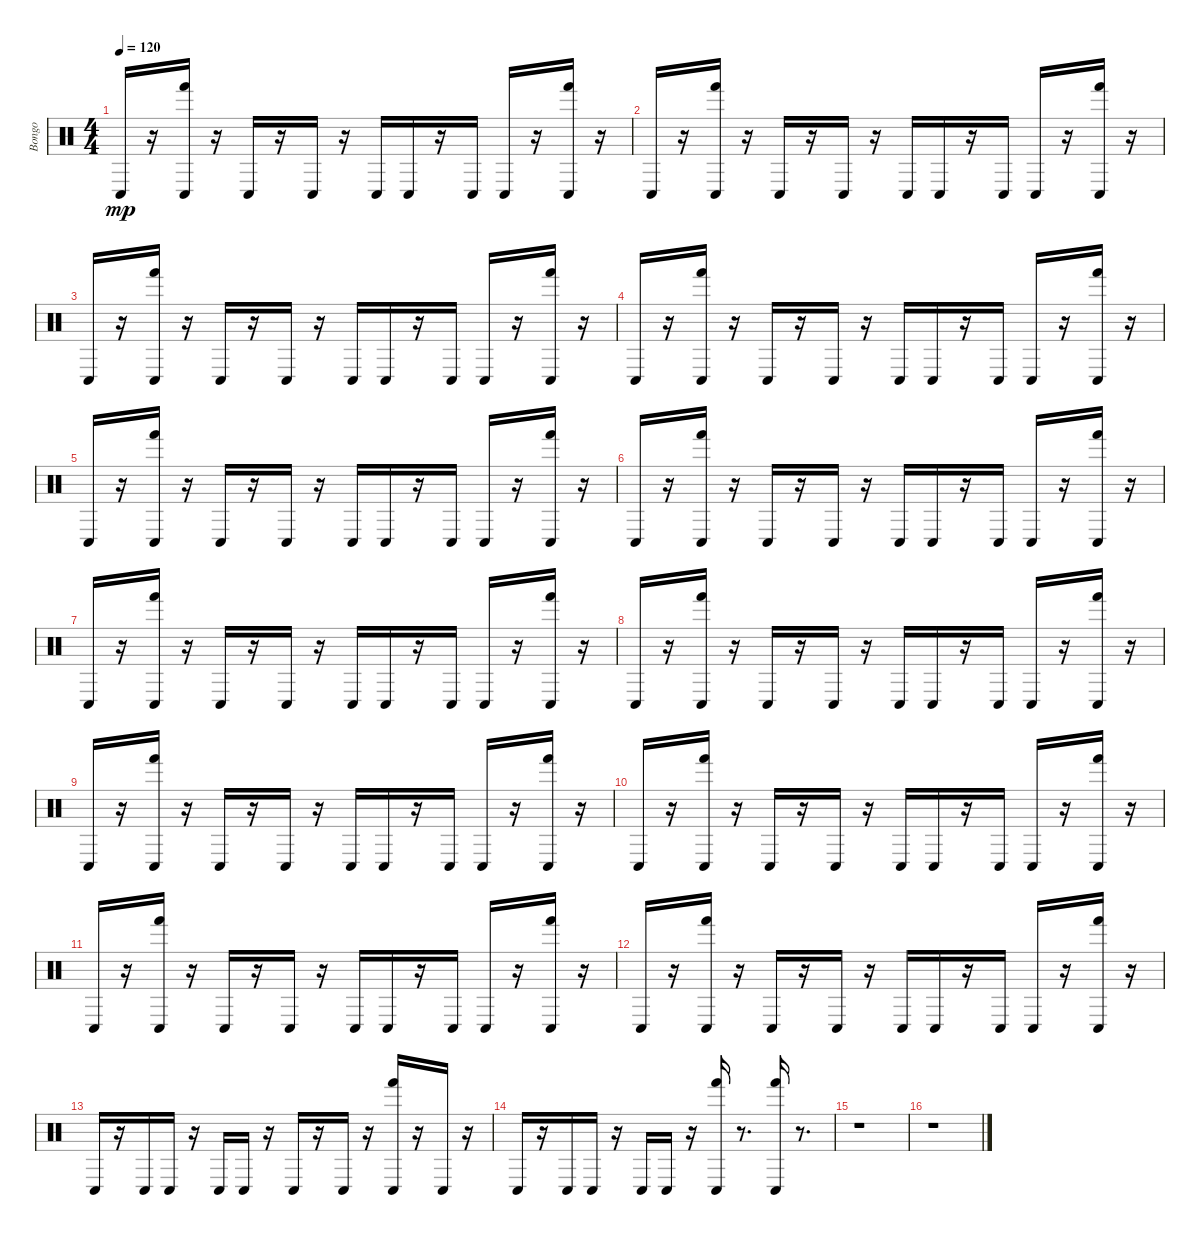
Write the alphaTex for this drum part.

\track ("Bongo" "Bongo") {instrument percussion}
\staff {score}
\articulation defaults
\ts (4 4)
\tempo 120
\clef neutral
\ks c "Conga low (hit)".16{dy mp}
r.16 ("Conga low (hit)" "Hand (hit)").16 r.16 "Conga low (hit)".16 r.16 "Conga low (hit)".16 r.16 "Conga low (hit)".16 "Conga low (hit)".16 r.16 "Conga low (hit)".16 "Conga low (hit)".16 r.16 ("Conga low (hit)" "Hand (hit)").16 r.16 |
"Conga low (hit)".16 r.16 ("Conga low (hit)" "Hand (hit)").16 r.16 "Conga low (hit)".16 r.16 "Conga low (hit)".16 r.16 "Conga low (hit)".16 "Conga low (hit)".16 r.16 "Conga low (hit)".16 "Conga low (hit)".16 r.16 ("Conga low (hit)" "Hand (hit)").16 r.16 |
"Conga low (hit)".16 r.16 ("Conga low (hit)" "Hand (hit)").16 r.16 "Conga low (hit)".16 r.16 "Conga low (hit)".16 r.16 "Conga low (hit)".16 "Conga low (hit)".16 r.16 "Conga low (hit)".16 "Conga low (hit)".16 r.16 ("Conga low (hit)" "Hand (hit)").16 r.16 |
"Conga low (hit)".16 r.16 ("Conga low (hit)" "Hand (hit)").16 r.16 "Conga low (hit)".16 r.16 "Conga low (hit)".16 r.16 "Conga low (hit)".16 "Conga low (hit)".16 r.16 "Conga low (hit)".16 "Conga low (hit)".16 r.16 ("Conga low (hit)" "Hand (hit)").16 r.16 |
"Conga low (hit)".16 r.16 ("Conga low (hit)" "Hand (hit)").16 r.16 "Conga low (hit)".16 r.16 "Conga low (hit)".16 r.16 "Conga low (hit)".16 "Conga low (hit)".16 r.16 "Conga low (hit)".16 "Conga low (hit)".16 r.16 ("Conga low (hit)" "Hand (hit)").16 r.16 |
"Conga low (hit)".16 r.16 ("Conga low (hit)" "Hand (hit)").16 r.16 "Conga low (hit)".16 r.16 "Conga low (hit)".16 r.16 "Conga low (hit)".16 "Conga low (hit)".16 r.16 "Conga low (hit)".16 "Conga low (hit)".16 r.16 ("Conga low (hit)" "Hand (hit)").16 r.16 |
"Conga low (hit)".16 r.16 ("Conga low (hit)" "Hand (hit)").16 r.16 "Conga low (hit)".16 r.16 "Conga low (hit)".16 r.16 "Conga low (hit)".16 "Conga low (hit)".16 r.16 "Conga low (hit)".16 "Conga low (hit)".16 r.16 ("Conga low (hit)" "Hand (hit)").16 r.16 |
"Conga low (hit)".16 r.16 ("Conga low (hit)" "Hand (hit)").16 r.16 "Conga low (hit)".16 r.16 "Conga low (hit)".16 r.16 "Conga low (hit)".16 "Conga low (hit)".16 r.16 "Conga low (hit)".16 "Conga low (hit)".16 r.16 ("Conga low (hit)" "Hand (hit)").16 r.16 |
"Conga low (hit)".16 r.16 ("Conga low (hit)" "Hand (hit)").16 r.16 "Conga low (hit)".16 r.16 "Conga low (hit)".16 r.16 "Conga low (hit)".16 "Conga low (hit)".16 r.16 "Conga low (hit)".16 "Conga low (hit)".16 r.16 ("Conga low (hit)" "Hand (hit)").16 r.16 |
"Conga low (hit)".16 r.16 ("Conga low (hit)" "Hand (hit)").16 r.16 "Conga low (hit)".16 r.16 "Conga low (hit)".16 r.16 "Conga low (hit)".16 "Conga low (hit)".16 r.16 "Conga low (hit)".16 "Conga low (hit)".16 r.16 ("Conga low (hit)" "Hand (hit)").16 r.16 |
"Conga low (hit)".16 r.16 ("Conga low (hit)" "Hand (hit)").16 r.16 "Conga low (hit)".16 r.16 "Conga low (hit)".16 r.16 "Conga low (hit)".16 "Conga low (hit)".16 r.16 "Conga low (hit)".16 "Conga low (hit)".16 r.16 ("Conga low (hit)" "Hand (hit)").16 r.16 |
"Conga low (hit)".16 r.16 ("Conga low (hit)" "Hand (hit)").16 r.16 "Conga low (hit)".16 r.16 "Conga low (hit)".16 r.16 "Conga low (hit)".16 "Conga low (hit)".16 r.16 "Conga low (hit)".16 "Conga low (hit)".16 r.16 ("Conga low (hit)" "Hand (hit)").16 r.16 |
"Conga low (hit)".16 r.16 "Conga low (hit)".16 "Conga low (hit)".16 r.16 "Conga low (hit)".16 "Conga low (hit)".16 r.16 "Conga low (hit)".16 r.16 "Conga low (hit)".16 r.16 ("Conga low (hit)" "Hand (hit)").16 r.16 "Conga low (hit)".16 r.16 |
"Conga low (hit)".16 r.16 "Conga low (hit)".16 "Conga low (hit)".16 r.16 "Conga low (hit)".16 "Conga low (hit)".16 r.16 ("Conga low (hit)" "Hand (hit)").16 r.8{d} ("Hand (hit)" "Conga low (hit)").16 r.8{d} |
r.1 |
r.1
